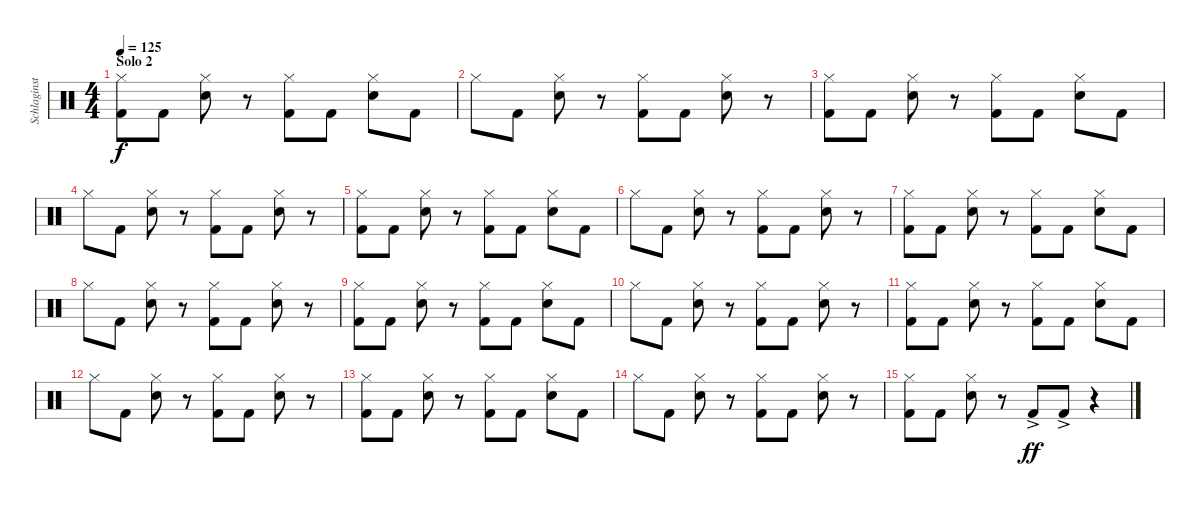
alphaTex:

\track ("Schlaginstrumente - Auswahl" "Schlaginst") {instrument percussion}
\staff {score}
\articulation defaults
\ts (4 4)
\section ("" "Solo 2")
\tempo 125
\clef neutral
\ks c
("Hi-Hat (closed)" "Kick (hit) 2").8{dy f} "Kick (hit) 2".8 ("Hi-Hat (closed)" "Snare (hit) 2").8 r.8 ("Hi-Hat (closed)" "Kick (hit) 2").8 "Kick (hit) 2".8 ("Hi-Hat (closed)" "Snare (hit) 2").8 "Kick (hit) 2".8 |
"Hi-Hat (closed)".8 "Kick (hit) 2".8 ("Hi-Hat (closed)" "Snare (hit) 2").8 r.8 ("Hi-Hat (closed)" "Kick (hit) 2").8 "Kick (hit) 2".8 ("Hi-Hat (closed)" "Snare (hit) 2").8 r.8 |
("Hi-Hat (closed)" "Kick (hit) 2").8 "Kick (hit) 2".8 ("Hi-Hat (closed)" "Snare (hit) 2").8 r.8 ("Hi-Hat (closed)" "Kick (hit) 2").8 "Kick (hit) 2".8 ("Hi-Hat (closed)" "Snare (hit) 2").8 "Kick (hit) 2".8 |
"Hi-Hat (closed)".8 "Kick (hit) 2".8 ("Hi-Hat (closed)" "Snare (hit) 2").8 r.8 ("Hi-Hat (closed)" "Kick (hit) 2").8 "Kick (hit) 2".8 ("Hi-Hat (closed)" "Snare (hit) 2").8 r.8 |
("Hi-Hat (closed)" "Kick (hit) 2").8 "Kick (hit) 2".8 ("Hi-Hat (closed)" "Snare (hit) 2").8 r.8 ("Hi-Hat (closed)" "Kick (hit) 2").8 "Kick (hit) 2".8 ("Hi-Hat (closed)" "Snare (hit) 2").8 "Kick (hit) 2".8 |
"Hi-Hat (closed)".8 "Kick (hit) 2".8 ("Hi-Hat (closed)" "Snare (hit) 2").8 r.8 ("Hi-Hat (closed)" "Kick (hit) 2").8 "Kick (hit) 2".8 ("Hi-Hat (closed)" "Snare (hit) 2").8 r.8 |
("Hi-Hat (closed)" "Kick (hit) 2").8 "Kick (hit) 2".8 ("Hi-Hat (closed)" "Snare (hit) 2").8 r.8 ("Hi-Hat (closed)" "Kick (hit) 2").8 "Kick (hit) 2".8 ("Hi-Hat (closed)" "Snare (hit) 2").8 "Kick (hit) 2".8 |
"Hi-Hat (closed)".8 "Kick (hit) 2".8 ("Hi-Hat (closed)" "Snare (hit) 2").8 r.8 ("Hi-Hat (closed)" "Kick (hit) 2").8 "Kick (hit) 2".8 ("Hi-Hat (closed)" "Snare (hit) 2").8 r.8 |
("Hi-Hat (closed)" "Kick (hit) 2").8 "Kick (hit) 2".8 ("Hi-Hat (closed)" "Snare (hit) 2").8 r.8 ("Hi-Hat (closed)" "Kick (hit) 2").8 "Kick (hit) 2".8 ("Hi-Hat (closed)" "Snare (hit) 2").8 "Kick (hit) 2".8 |
"Hi-Hat (closed)".8 "Kick (hit) 2".8 ("Hi-Hat (closed)" "Snare (hit) 2").8 r.8 ("Hi-Hat (closed)" "Kick (hit) 2").8 "Kick (hit) 2".8 ("Hi-Hat (closed)" "Snare (hit) 2").8 r.8 |
("Hi-Hat (closed)" "Kick (hit) 2").8 "Kick (hit) 2".8 ("Hi-Hat (closed)" "Snare (hit) 2").8 r.8 ("Hi-Hat (closed)" "Kick (hit) 2").8 "Kick (hit) 2".8 ("Hi-Hat (closed)" "Snare (hit) 2").8 "Kick (hit) 2".8 |
"Hi-Hat (closed)".8 "Kick (hit) 2".8 ("Hi-Hat (closed)" "Snare (hit) 2").8 r.8 ("Hi-Hat (closed)" "Kick (hit) 2").8 "Kick (hit) 2".8 ("Hi-Hat (closed)" "Snare (hit) 2").8 r.8 |
("Hi-Hat (closed)" "Kick (hit) 2").8 "Kick (hit) 2".8 ("Hi-Hat (closed)" "Snare (hit) 2").8 r.8 ("Hi-Hat (closed)" "Kick (hit) 2").8 "Kick (hit) 2".8 ("Hi-Hat (closed)" "Snare (hit) 2").8 "Kick (hit) 2".8 |
"Hi-Hat (closed)".8 "Kick (hit) 2".8 ("Hi-Hat (closed)" "Snare (hit) 2").8 r.8 ("Hi-Hat (closed)" "Kick (hit) 2").8 "Kick (hit) 2".8 ("Hi-Hat (closed)" "Snare (hit) 2").8 r.8 |
("Hi-Hat (closed)" "Kick (hit) 2").8 "Kick (hit) 2".8 ("Hi-Hat (closed)" "Snare (hit) 2").8 r.8 "Kick (hit) 2"{ac}.8{dy ff} "Kick (hit) 2"{ac}.8 r.4
